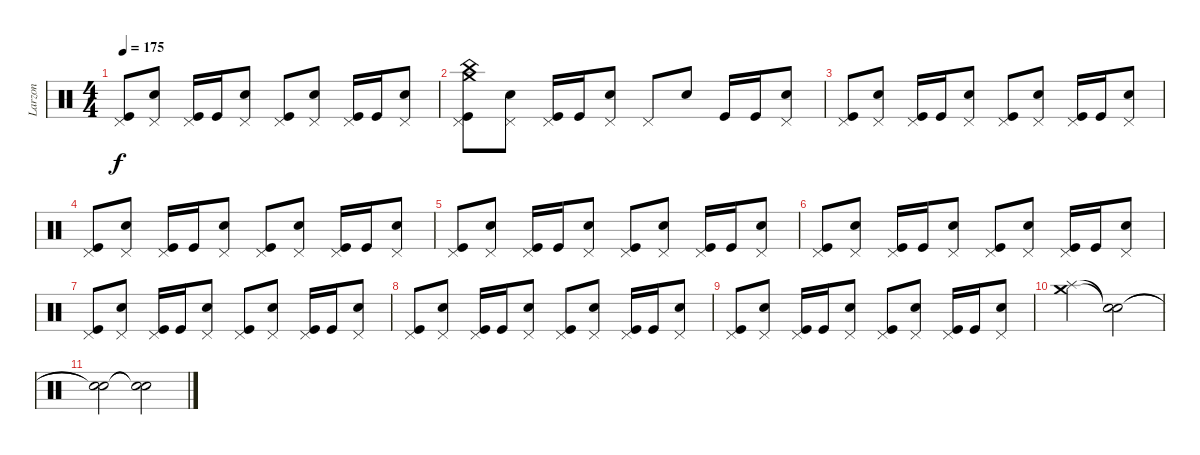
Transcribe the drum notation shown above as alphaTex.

\track ("Larzon" "Larzon") {instrument percussion}
\staff {score}
\articulation defaults
\ts (4 4)
\tempo 175
\clef neutral
\ks c
("Kick (hit)" "Pedal Hi-Hat (hit)").8{dy f} ("Snare (hit) 2" "Pedal Hi-Hat (hit)").8 ("Kick (hit)" "Pedal Hi-Hat (hit)").16 "Kick (hit)".16 ("Snare (hit) 2" "Pedal Hi-Hat (hit)").8 ("Pedal Hi-Hat (hit)" "Kick (hit)").8 ("Snare (hit) 2" "Pedal Hi-Hat (hit)").8 ("Kick (hit)" "Pedal Hi-Hat (hit)").16 "Kick (hit)".16 ("Snare (hit) 2" "Pedal Hi-Hat (hit)").8 |
("China (hit)" "Crash medium (hit)" "Pedal Hi-Hat (hit)" "Kick (hit)").8 ("Snare (hit) 2" "Pedal Hi-Hat (hit)").8 ("Kick (hit)" "Pedal Hi-Hat (hit)").16 "Kick (hit)".16 ("Snare (hit) 2" "Pedal Hi-Hat (hit)").8 "Pedal Hi-Hat (hit)".8 "Snare (hit) 2".8 "Kick (hit)".16 "Kick (hit)".16 ("Snare (hit) 2" "Pedal Hi-Hat (hit)").8 |
("Kick (hit)" "Pedal Hi-Hat (hit)").8 ("Snare (hit) 2" "Pedal Hi-Hat (hit)").8 ("Kick (hit)" "Pedal Hi-Hat (hit)").16 "Kick (hit)".16 ("Snare (hit) 2" "Pedal Hi-Hat (hit)").8 ("Pedal Hi-Hat (hit)" "Kick (hit)").8 ("Snare (hit) 2" "Pedal Hi-Hat (hit)").8 ("Kick (hit)" "Pedal Hi-Hat (hit)").16 "Kick (hit)".16 ("Snare (hit) 2" "Pedal Hi-Hat (hit)").8 |
("Kick (hit)" "Pedal Hi-Hat (hit)").8 ("Snare (hit) 2" "Pedal Hi-Hat (hit)").8 ("Kick (hit)" "Pedal Hi-Hat (hit)").16 "Kick (hit)".16 ("Snare (hit) 2" "Pedal Hi-Hat (hit)").8 ("Pedal Hi-Hat (hit)" "Kick (hit)").8 ("Snare (hit) 2" "Pedal Hi-Hat (hit)").8 ("Kick (hit)" "Pedal Hi-Hat (hit)").16 "Kick (hit)".16 ("Snare (hit) 2" "Pedal Hi-Hat (hit)").8 |
("Kick (hit)" "Pedal Hi-Hat (hit)").8 ("Snare (hit) 2" "Pedal Hi-Hat (hit)").8 ("Kick (hit)" "Pedal Hi-Hat (hit)").16 "Kick (hit)".16 ("Snare (hit) 2" "Pedal Hi-Hat (hit)").8 ("Pedal Hi-Hat (hit)" "Kick (hit)").8 ("Snare (hit) 2" "Pedal Hi-Hat (hit)").8 ("Kick (hit)" "Pedal Hi-Hat (hit)").16 "Kick (hit)".16 ("Snare (hit) 2" "Pedal Hi-Hat (hit)").8 |
("Kick (hit)" "Pedal Hi-Hat (hit)").8 ("Snare (hit) 2" "Pedal Hi-Hat (hit)").8 ("Kick (hit)" "Pedal Hi-Hat (hit)").16 "Kick (hit)".16 ("Snare (hit) 2" "Pedal Hi-Hat (hit)").8 ("Pedal Hi-Hat (hit)" "Kick (hit)").8 ("Snare (hit) 2" "Pedal Hi-Hat (hit)").8 ("Kick (hit)" "Pedal Hi-Hat (hit)").16 "Kick (hit)".16 ("Snare (hit) 2" "Pedal Hi-Hat (hit)").8 |
("Kick (hit)" "Pedal Hi-Hat (hit)").8 ("Snare (hit) 2" "Pedal Hi-Hat (hit)").8 ("Kick (hit)" "Pedal Hi-Hat (hit)").16 "Kick (hit)".16 ("Snare (hit) 2" "Pedal Hi-Hat (hit)").8 ("Pedal Hi-Hat (hit)" "Kick (hit)").8 ("Snare (hit) 2" "Pedal Hi-Hat (hit)").8 ("Kick (hit)" "Pedal Hi-Hat (hit)").16 "Kick (hit)".16 ("Snare (hit) 2" "Pedal Hi-Hat (hit)").8 |
("Kick (hit)" "Pedal Hi-Hat (hit)").8 ("Snare (hit) 2" "Pedal Hi-Hat (hit)").8 ("Kick (hit)" "Pedal Hi-Hat (hit)").16 "Kick (hit)".16 ("Snare (hit) 2" "Pedal Hi-Hat (hit)").8 ("Pedal Hi-Hat (hit)" "Kick (hit)").8 ("Snare (hit) 2" "Pedal Hi-Hat (hit)").8 ("Kick (hit)" "Pedal Hi-Hat (hit)").16 "Kick (hit)".16 ("Snare (hit) 2" "Pedal Hi-Hat (hit)").8 |
("Kick (hit)" "Pedal Hi-Hat (hit)").8 ("Snare (hit) 2" "Pedal Hi-Hat (hit)").8 ("Kick (hit)" "Pedal Hi-Hat (hit)").16 "Kick (hit)".16 ("Snare (hit) 2" "Pedal Hi-Hat (hit)").8 ("Pedal Hi-Hat (hit)" "Kick (hit)").8 ("Snare (hit) 2" "Pedal Hi-Hat (hit)").8 ("Kick (hit)" "Pedal Hi-Hat (hit)").16 "Kick (hit)".16 ("Snare (hit) 2" "Pedal Hi-Hat (hit)").8 |
("Crash medium (hit)" "Splash (hit)").2 ("Snare (hit)"{t} "Snare (hit)"{t}).2 |
("Snare (hit)"{t} "Snare (hit)"{t}).2 ("Snare (hit)"{t} "Snare (hit)"{t}).2
